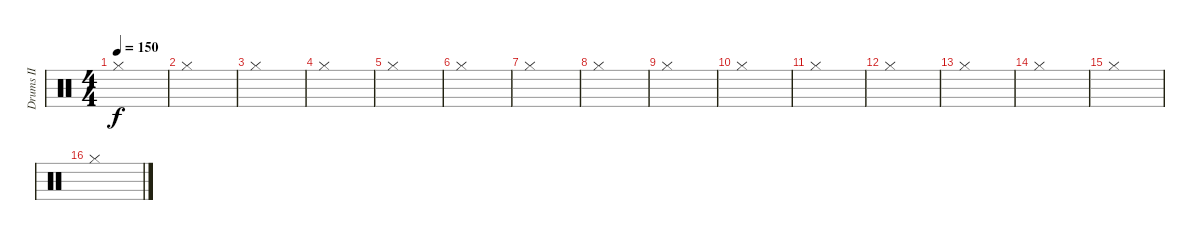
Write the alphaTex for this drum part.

\track ("Drums II" "Drums II") {instrument percussion}
\staff {score}
\articulation defaults
\ts (4 4)
\tempo 150
\clef neutral
\ks c "Hi-Hat (closed)".1{dy f}
|
"Hi-Hat (closed)".1 |
"Hi-Hat (closed)".1 |
"Hi-Hat (closed)".1 |
"Hi-Hat (closed)".1 |
"Hi-Hat (closed)".1 |
"Hi-Hat (closed)".1 |
"Hi-Hat (closed)".1 |
"Hi-Hat (closed)".1 |
"Hi-Hat (closed)".1 |
"Hi-Hat (closed)".1 |
"Hi-Hat (closed)".1 |
"Hi-Hat (closed)".1 |
"Hi-Hat (closed)".1 |
"Hi-Hat (closed)".1 |
"Hi-Hat (closed)".1
